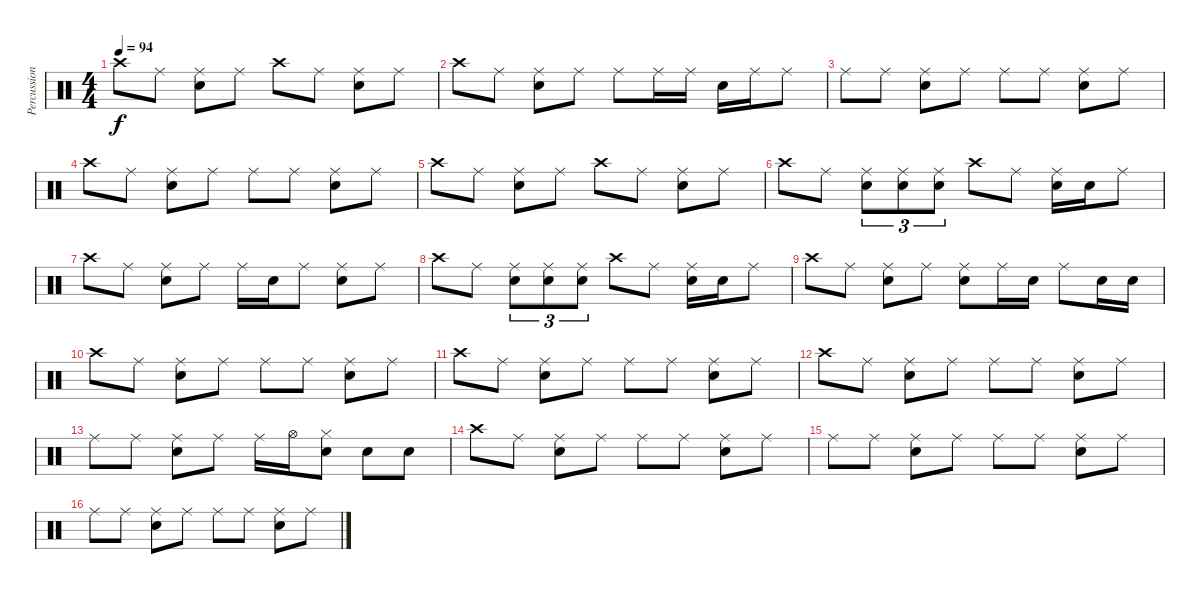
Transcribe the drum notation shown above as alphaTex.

\track ("Percussion" "Percussion") {instrument percussion}
\staff {score}
\articulation defaults
\ts (4 4)
\tempo 94
\clef neutral
\ks c "Crash high (hit)".8{dy f} "Ride (middle)".8
("Ride (middle)" "Snare (hit) 2").8 "Ride (middle)".8 "Crash high (hit)".8 "Ride (middle)".8 ("Ride (middle)" "Snare (hit) 2").8 "Ride (middle)".8 |
"Crash high (hit)".8 "Ride (middle)".8 ("Ride (middle)" "Snare (hit) 2").8 "Ride (middle)".8 "Ride (middle)".8 "Ride (middle)".16 "Ride (middle)".16 "Snare (hit) 2".16 "Ride (middle)".16 "Ride (middle)".8 |
"Ride (middle)".8 "Ride (middle)".8 ("Ride (middle)" "Snare (hit) 2").8 "Ride (middle)".8 "Ride (middle)".8 "Ride (middle)".8 ("Ride (middle)" "Snare (hit) 2").8 "Ride (middle)".8 |
"Crash high (hit)".8 "Ride (middle)".8 ("Ride (middle)" "Snare (hit) 2").8 "Ride (middle)".8 "Ride (middle)".8 "Ride (middle)".8 ("Ride (middle)" "Snare (hit) 2").8 "Ride (middle)".8 |
"Crash high (hit)".8 "Ride (middle)".8 ("Ride (middle)" "Snare (hit) 2").8 "Ride (middle)".8 "Crash high (hit)".8 "Ride (middle)".8 ("Ride (middle)" "Snare (hit) 2").8 "Ride (middle)".8 |
"Crash high (hit)".8 "Ride (middle)".8 ("Ride (middle)" "Snare (hit) 2").8{tu (3 2)} ("Ride (middle)" "Snare (hit) 2").8{tu (3 2)} ("Ride (middle)" "Snare (hit) 2").8{tu (3 2)} "Crash high (hit)".8 "Ride (middle)".8 ("Ride (middle)" "Snare (hit) 2").16 "Snare (hit) 2".16 "Ride (middle)".8 |
"Crash high (hit)".8 "Ride (middle)".8 ("Ride (middle)" "Snare (hit) 2").8 "Ride (middle)".8 "Ride (middle)".16 "Snare (hit) 2".16 "Ride (middle)".8 ("Ride (middle)" "Snare (hit) 2").8 "Ride (middle)".8 |
"Crash high (hit)".8 "Ride (middle)".8 ("Ride (middle)" "Snare (hit) 2").8{tu (3 2)} ("Ride (middle)" "Snare (hit) 2").8{tu (3 2)} ("Ride (middle)" "Snare (hit) 2").8{tu (3 2)} "Crash high (hit)".8 "Ride (middle)".8 ("Ride (middle)" "Snare (hit) 2").16 "Snare (hit) 2".16 "Ride (middle)".8 |
"Crash high (hit)".8 "Ride (middle)".8 ("Ride (middle)" "Snare (hit) 2").8 "Ride (middle)".8 ("Ride (middle)" "Snare (hit) 2").8 "Ride (middle)".16 "Snare (hit) 2".16 "Ride (middle)".8 "Snare (hit) 2".16 "Snare (hit) 2".16 |
"Crash high (hit)".8 "Ride (middle)".8 ("Ride (middle)" "Snare (hit) 2").8 "Ride (middle)".8 "Ride (middle)".8 "Ride (middle)".8 ("Ride (middle)" "Snare (hit) 2").8 "Ride (middle)".8 |
"Crash high (hit)".8 "Ride (middle)".8 ("Ride (middle)" "Snare (hit) 2").8 "Ride (middle)".8 "Ride (middle)".8 "Ride (middle)".8 ("Ride (middle)" "Snare (hit) 2").8 "Ride (middle)".8 |
"Crash high (hit)".8 "Ride (middle)".8 ("Ride (middle)" "Snare (hit) 2").8 "Ride (middle)".8 "Ride (middle)".8 "Ride (middle)".8 ("Ride (middle)" "Snare (hit) 2").8 "Ride (middle)".8 |
"Ride (middle)".8 "Ride (middle)".8 ("Ride (middle)" "Snare (hit) 2").8 "Ride (middle)".8 "Ride (middle)".16 "Hi-Hat (open)".16 ("Hi-Hat (closed)" "Snare (hit) 2").8 "Snare (hit) 2".8 "Snare (hit) 2".8 |
"Crash high (hit)".8 "Ride (middle)".8 ("Ride (middle)" "Snare (hit) 2").8 "Ride (middle)".8 "Ride (middle)".8 "Ride (middle)".8 ("Ride (middle)" "Snare (hit) 2").8 "Ride (middle)".8 |
"Ride (middle)".8 "Ride (middle)".8 ("Ride (middle)" "Snare (hit) 2").8 "Ride (middle)".8 "Ride (middle)".8 "Ride (middle)".8 ("Ride (middle)" "Snare (hit) 2").8 "Ride (middle)".8 |
"Ride (middle)".8 "Ride (middle)".8 ("Ride (middle)" "Snare (hit) 2").8 "Ride (middle)".8 "Ride (middle)".8 "Ride (middle)".8 ("Ride (middle)" "Snare (hit) 2").8 "Ride (middle)".8
